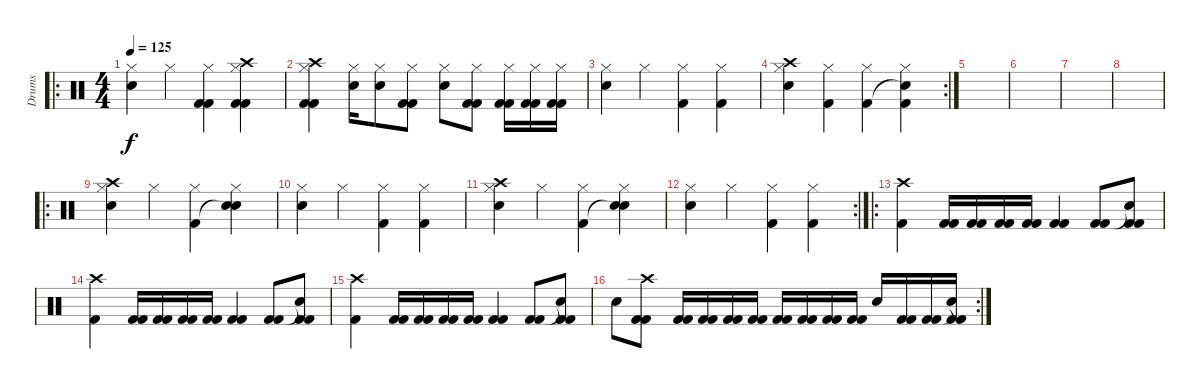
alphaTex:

\track ("Drums" "Drums") {instrument percussion}
\staff {score}
\articulation defaults
\ro
\ts (4 4)
\tempo 125
\clef neutral
\ks c
("Hi-Hat (closed)" "Snare (hit) 2").4{dy f} "Hi-Hat (closed)".4 ("Hi-Hat (closed)" "Kick (hit) 2" "Kick (hit) 2").4 ("Hi-Hat (closed)" "Crash high (hit)" "Kick (hit) 2" "Kick (hit) 2").4 |
("Hi-Hat (closed)" "Crash high (hit)" "Kick (hit) 2" "Kick (hit) 2").4 ("Hi-Hat (closed)" "Snare (hit) 2").16 ("Hi-Hat (closed)" "Snare (hit) 2").8 ("Hi-Hat (closed)" "Kick (hit) 2" "Kick (hit) 2").8 ("Hi-Hat (closed)" "Snare (hit) 2").8 ("Hi-Hat (closed)" "Kick (hit) 2" "Kick (hit) 2").8 ("Hi-Hat (closed)" "Kick (hit) 2" "Kick (hit) 2").16 ("Hi-Hat (closed)" "Kick (hit) 2" "Kick (hit) 2").16 ("Hi-Hat (closed)" "Kick (hit) 2" "Kick (hit) 2").16 |
("Hi-Hat (closed)" "Snare (hit) 2").4 "Hi-Hat (closed)".4 ("Hi-Hat (closed)" "Kick (hit) 2").4 ("Hi-Hat (closed)" "Kick (hit) 2").4 |
\rc 2
("Hi-Hat (closed)" "Crash high (hit)" "Snare (hit) 2").4 ("Hi-Hat (closed)" "Kick (hit) 2").4 ("Hi-Hat (closed)" "Kick (hit) 2").4 ("Hi-Hat (closed)" "Snare (hit)"{t} "Kick (hit) 2").4 |
|
|
|
|
\ro
("Hi-Hat (closed)" "Crash high (hit)" "Snare (hit) 2").4 "Hi-Hat (closed)".4 ("Hi-Hat (closed)" "Kick (hit) 2").4 ("Hi-Hat (closed)" "Snare (hit)"{t} "Snare (hit) 2").4 |
("Hi-Hat (closed)" "Snare (hit) 2").4 "Hi-Hat (closed)".4 ("Hi-Hat (closed)" "Kick (hit) 2").4 ("Hi-Hat (closed)" "Kick (hit) 2").4 |
("Hi-Hat (closed)" "Crash high (hit)" "Snare (hit) 2").4 "Hi-Hat (closed)".4 ("Hi-Hat (closed)" "Kick (hit) 2").4 ("Hi-Hat (closed)" "Snare (hit)"{t} "Snare (hit) 2").4 |
\rc 2
("Hi-Hat (closed)" "Snare (hit) 2").4 "Hi-Hat (closed)".4 ("Hi-Hat (closed)" "Kick (hit) 2").4 ("Hi-Hat (closed)" "Kick (hit) 2").4 |
\ro
("Crash high (hit)" "Kick (hit) 2").4 ("Kick (hit) 2" "Kick (hit) 2").16 ("Kick (hit) 2" "Kick (hit) 2").16 ("Kick (hit) 2" "Kick (hit) 2").16 ("Kick (hit) 2" "Kick (hit) 2").16 ("Kick (hit) 2" "Kick (hit) 2").4 ("Kick (hit) 2" "Kick (hit) 2").8 ("Snare (hit)"{t} "Kick (hit) 2" "Kick (hit) 2").8 |
("Crash high (hit)" "Kick (hit) 2").4 ("Kick (hit) 2" "Kick (hit) 2").16 ("Kick (hit) 2" "Kick (hit) 2").16 ("Kick (hit) 2" "Kick (hit) 2").16 ("Kick (hit) 2" "Kick (hit) 2").16 ("Kick (hit) 2" "Kick (hit) 2").4 ("Kick (hit) 2" "Kick (hit) 2").8 ("Snare (hit)"{t} "Kick (hit) 2" "Kick (hit) 2").8 |
("Crash high (hit)" "Kick (hit) 2").4 ("Kick (hit) 2" "Kick (hit) 2").16 ("Kick (hit) 2" "Kick (hit) 2").16 ("Kick (hit) 2" "Kick (hit) 2").16 ("Kick (hit) 2" "Kick (hit) 2").16 ("Kick (hit) 2" "Kick (hit) 2").4 ("Kick (hit) 2" "Kick (hit) 2").8 ("Snare (hit)"{t} "Kick (hit) 2" "Kick (hit) 2").8 |
\rc 2 "Snare (hit) 2".8
("Crash high (hit)" "Kick (hit) 2" "Kick (hit) 2").8 ("Kick (hit) 2" "Kick (hit) 2").16 ("Kick (hit) 2" "Kick (hit) 2").16 ("Kick (hit) 2" "Kick (hit) 2").16 ("Kick (hit) 2" "Kick (hit) 2").16 ("Kick (hit) 2" "Kick (hit) 2").16 ("Kick (hit) 2" "Kick (hit) 2").16 ("Kick (hit) 2" "Kick (hit) 2").16 ("Kick (hit) 2" "Kick (hit) 2").16 "Snare (hit) 2".16 ("Kick (hit) 2" "Kick (hit) 2").16 ("Kick (hit) 2" "Kick (hit) 2").16 ("Snare (hit)"{t} "Kick (hit) 2" "Kick (hit) 2").16
